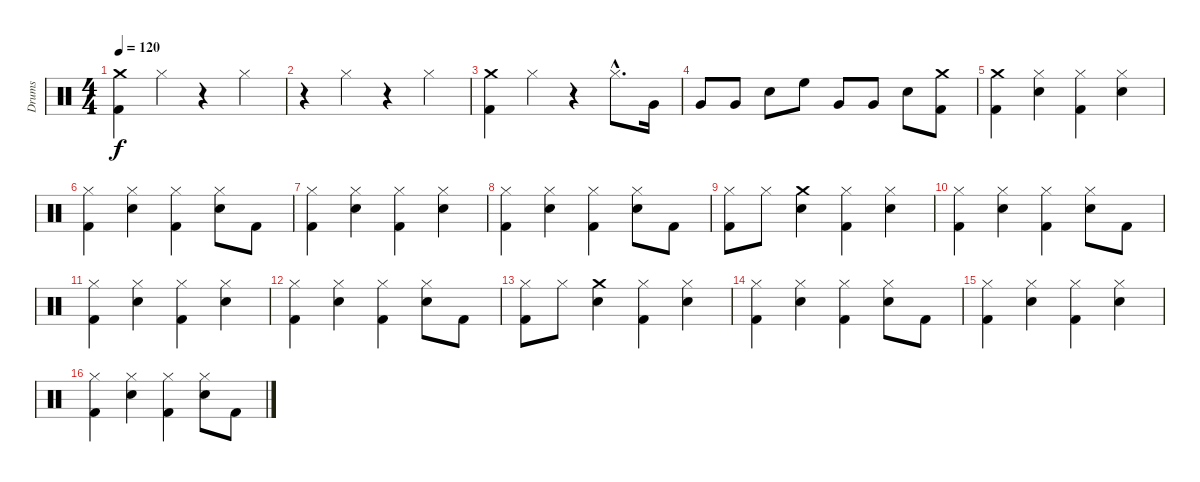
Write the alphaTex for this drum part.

\track ("Drums" "Drums") {instrument percussion}
\staff {score}
\articulation defaults
\ts (4 4)
\tempo 120
\clef neutral
\ks c
("Kick (hit) 2" "Crash medium (hit)").4{dy f} "Hi-Hat (closed)".4 r.4 "Hi-Hat (closed)".4 |
r.4 "Hi-Hat (closed)".4 r.4 "Hi-Hat (closed)".4 |
("Crash medium (hit)" "Kick (hit) 2").4 "Hi-Hat (closed)".4 r.4 "Hi-Hat (closed)"{hac}.8{d} "Very Low Tom (hit)".16 |
"Very Low Tom (hit)".8 "Very Low Tom (hit)".8 "Snare (hit) 2".8 "High Floor Tom (hit)".8 "Very Low Tom (hit)".8 "Very Low Tom (hit)".8 "Snare (hit) 2".8 ("Crash medium (hit)" "Kick (hit) 2").8 |
("Kick (hit) 2" "Crash medium (hit)").4 ("Hi-Hat (closed)" "Snare (hit) 2").4 ("Kick (hit) 2" "Hi-Hat (closed)").4 ("Hi-Hat (closed)" "Snare (hit) 2").4 |
("Hi-Hat (closed)" "Kick (hit) 2").4 ("Hi-Hat (closed)" "Snare (hit) 2").4 ("Hi-Hat (closed)" "Kick (hit) 2").4 ("Snare (hit) 2" "Hi-Hat (closed)").8 "Kick (hit) 2".8 |
("Kick (hit) 2" "Hi-Hat (closed)").4 ("Hi-Hat (closed)" "Snare (hit) 2").4 ("Kick (hit) 2" "Hi-Hat (closed)").4 ("Snare (hit) 2" "Hi-Hat (closed)").4 |
("Kick (hit) 2" "Hi-Hat (closed)").4 ("Hi-Hat (closed)" "Snare (hit) 2").4 ("Kick (hit) 2" "Hi-Hat (closed)").4 ("Hi-Hat (closed)" "Snare (hit) 2").8 "Kick (hit) 2".8 |
("Kick (hit) 2" "Hi-Hat (closed)").8 "Hi-Hat (closed)".8 ("Crash medium (hit)" "Snare (hit) 2").4 ("Hi-Hat (closed)" "Kick (hit) 2").4 ("Snare (hit) 2" "Hi-Hat (closed)").4 |
("Hi-Hat (closed)" "Kick (hit) 2").4 ("Snare (hit) 2" "Hi-Hat (closed)").4 ("Hi-Hat (closed)" "Kick (hit) 2").4 ("Snare (hit) 2" "Hi-Hat (closed)").8 "Kick (hit) 2".8 |
("Hi-Hat (closed)" "Kick (hit) 2").4 ("Snare (hit) 2" "Hi-Hat (closed)").4 ("Hi-Hat (closed)" "Kick (hit) 2").4 ("Snare (hit) 2" "Hi-Hat (closed)").4 |
("Hi-Hat (closed)" "Kick (hit) 2").4 ("Hi-Hat (closed)" "Snare (hit) 2").4 ("Hi-Hat (closed)" "Kick (hit) 2").4 ("Snare (hit) 2" "Hi-Hat (closed)").8 "Kick (hit) 2".8 |
("Kick (hit) 2" "Hi-Hat (closed)").8 "Hi-Hat (closed)".8 ("Crash medium (hit)" "Snare (hit) 2").4 ("Hi-Hat (closed)" "Kick (hit) 2").4 ("Hi-Hat (closed)" "Snare (hit) 2").4 |
("Hi-Hat (closed)" "Kick (hit) 2").4 ("Snare (hit) 2" "Hi-Hat (closed)").4 ("Hi-Hat (closed)" "Kick (hit) 2").4 ("Hi-Hat (closed)" "Snare (hit) 2").8 "Kick (hit) 2".8 |
("Kick (hit) 2" "Hi-Hat (closed)").4 ("Hi-Hat (closed)" "Snare (hit) 2").4 ("Hi-Hat (closed)" "Kick (hit) 2").4 ("Hi-Hat (closed)" "Snare (hit) 2").4 |
("Hi-Hat (closed)" "Kick (hit) 2").4 ("Hi-Hat (closed)" "Snare (hit) 2").4 ("Kick (hit) 2" "Hi-Hat (closed)").4 ("Hi-Hat (closed)" "Snare (hit) 2").8 "Kick (hit) 2".8
